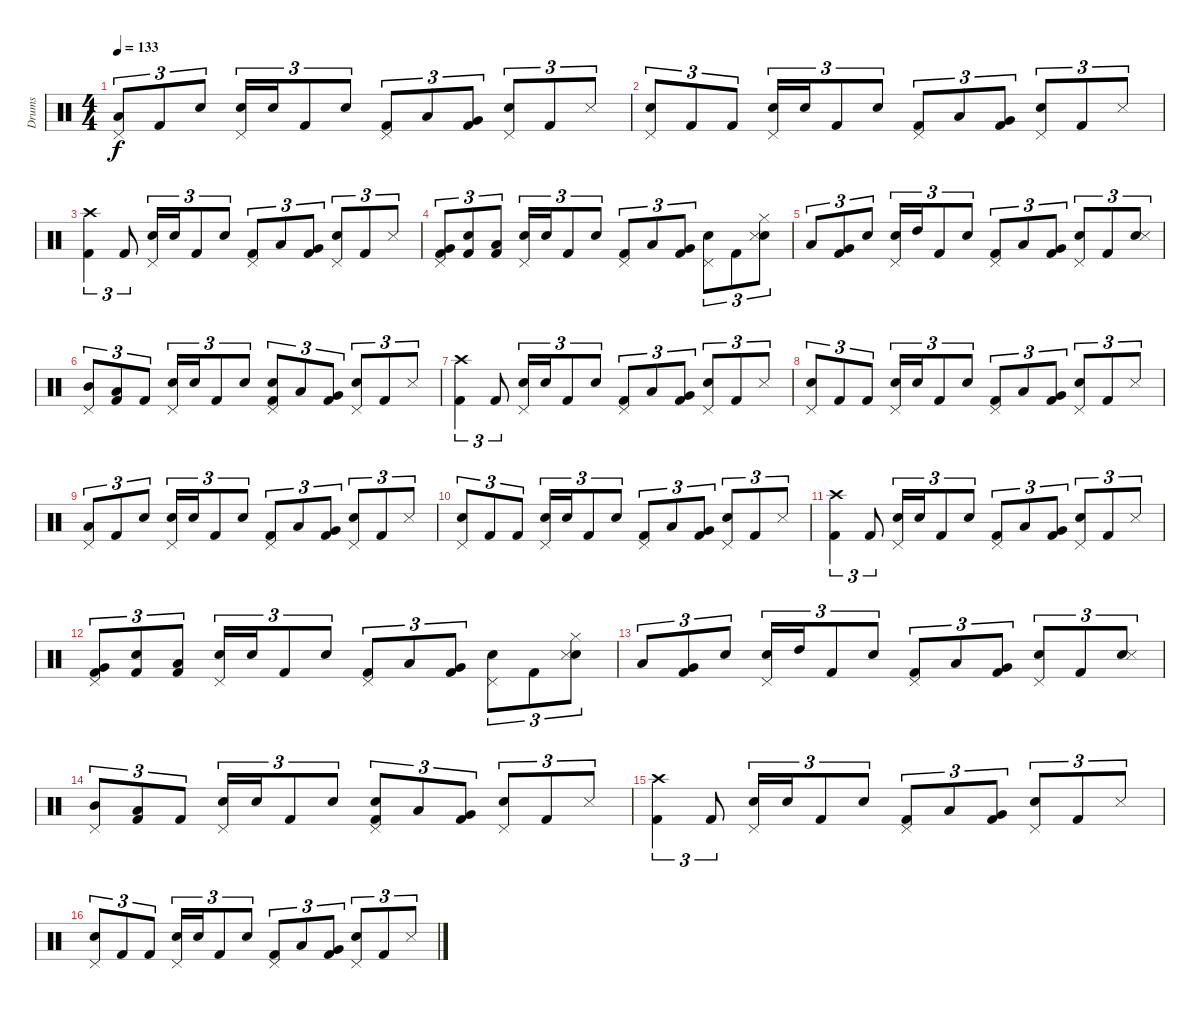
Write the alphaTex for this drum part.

\track ("Drums" "Drums") {instrument percussion}
\staff {score}
\articulation defaults
\ts (4 4)
\tempo 133
\clef neutral
\ks c
("Low Tom (hit)" "Pedal Hi-Hat (hit)").8{tu (3 2) dy f} "Kick (hit) 2".8{tu (3 2)} "Snare (hit) 2".8{tu (3 2)} ("Snare (hit) 2" "Pedal Hi-Hat (hit)").16{tu (3 2)} "Snare (hit) 2".16{tu (3 2)} "Kick (hit) 2".8{tu (3 2)} "Snare (hit) 2".8{tu (3 2)} ("Kick (hit) 2" "Pedal Hi-Hat (hit)").8{tu (3 2)} "Low Tom (hit)".8{tu (3 2)} ("Kick (hit) 2" "Very Low Tom (hit)").8{tu (3 2)} ("Snare (hit) 2" "Pedal Hi-Hat (hit)").8{tu (3 2)} "Kick (hit) 2".8{tu (3 2)} "Snare (side stick) 3".8{tu (3 2)} |
("Snare (hit) 2" "Pedal Hi-Hat (hit)").8{tu (3 2)} "Kick (hit) 2".8{tu (3 2)} "Kick (hit) 2".8{tu (3 2)} ("Snare (hit) 2" "Pedal Hi-Hat (hit)").16{tu (3 2)} "Snare (hit) 2".16{tu (3 2)} "Kick (hit) 2".8{tu (3 2)} "Snare (hit) 2".8{tu (3 2)} ("Kick (hit) 2" "Pedal Hi-Hat (hit)").8{tu (3 2)} "Low Tom (hit)".8{tu (3 2)} ("Kick (hit) 2" "Very Low Tom (hit)").8{tu (3 2)} ("Snare (hit) 2" "Pedal Hi-Hat (hit)").8{tu (3 2)} "Kick (hit) 2".8{tu (3 2)} "Snare (side stick) 3".8{tu (3 2)} |
("Kick (hit) 2" "Crash high (hit)").4{tu (3 2)} "Kick (hit) 2".8{tu (3 2)} ("Snare (hit) 2" "Pedal Hi-Hat (hit)").16{tu (3 2)} "Snare (hit) 2".16{tu (3 2)} "Kick (hit) 2".8{tu (3 2)} "Snare (hit) 2".8{tu (3 2)} ("Kick (hit) 2" "Pedal Hi-Hat (hit)").8{tu (3 2)} "Low Tom (hit)".8{tu (3 2)} ("Kick (hit) 2" "Very Low Tom (hit)").8{tu (3 2)} ("Snare (hit) 2" "Pedal Hi-Hat (hit)").8{tu (3 2)} "Kick (hit) 2".8{tu (3 2)} "Snare (side stick) 3".8{tu (3 2)} |
("Kick (hit) 2" "Very Low Tom (hit)" "Pedal Hi-Hat (hit)").8{tu (3 2)} ("Kick (hit) 2" "Snare (hit) 2").8{tu (3 2)} ("Kick (hit) 2" "Low Tom (hit)").8{tu (3 2)} ("Snare (hit) 2" "Pedal Hi-Hat (hit)").16{tu (3 2)} "Snare (hit) 2".16{tu (3 2)} "Kick (hit) 2".8{tu (3 2)} "Snare (hit) 2".8{tu (3 2)} ("Kick (hit) 2" "Pedal Hi-Hat (hit)").8{tu (3 2)} "Low Tom (hit)".8{tu (3 2)} ("Kick (hit) 2" "Very Low Tom (hit)").8{tu (3 2)} ("Snare (hit) 2" "Pedal Hi-Hat (hit)").8{tu (3 2)} "Kick (hit) 2".8{tu (3 2)} ("Snare (hit) 2" "Snare (side stick) 3" "Hi-Hat (closed)").8{tu (3 2)} |
"Low Tom (hit)".8{tu (3 2)} ("Kick (hit) 2" "Very Low Tom (hit)").8{tu (3 2)} "Snare (hit) 2".8{tu (3 2)} ("Snare (hit) 2" "Pedal Hi-Hat (hit)").16{tu (3 2)} "High Tom (hit)".16{tu (3 2)} "Kick (hit) 2".8{tu (3 2)} "Snare (hit) 2".8{tu (3 2)} ("Kick (hit) 2" "Pedal Hi-Hat (hit)").8{tu (3 2)} "Low Tom (hit)".8{tu (3 2)} ("Kick (hit) 2" "Very Low Tom (hit)").8{tu (3 2)} ("Snare (hit) 2" "Pedal Hi-Hat (hit)").8{tu (3 2)} "Kick (hit) 2".8{tu (3 2)} ("Snare (hit) 2" "Snare (side stick) 3").8{tu (3 2)} |
("Mid Tom (hit)" "Pedal Hi-Hat (hit)").8{tu (3 2)} ("Kick (hit) 2" "Low Tom (hit)").8{tu (3 2)} "Kick (hit) 2".8{tu (3 2)} ("Snare (hit) 2" "Pedal Hi-Hat (hit)").16{tu (3 2)} "Snare (hit) 2".16{tu (3 2)} "Kick (hit) 2".8{tu (3 2)} "Snare (hit) 2".8{tu (3 2)} ("Kick (hit) 2" "Snare (hit) 2" "Pedal Hi-Hat (hit)").8{tu (3 2)} "Low Tom (hit)".8{tu (3 2)} ("Kick (hit) 2" "Very Low Tom (hit)").8{tu (3 2)} ("Snare (hit) 2" "Pedal Hi-Hat (hit)").8{tu (3 2)} "Kick (hit) 2".8{tu (3 2)} "Snare (side stick) 3".8{tu (3 2)} |
("Kick (hit) 2" "Crash high (hit)").4{tu (3 2)} "Kick (hit) 2".8{tu (3 2)} ("Snare (hit) 2" "Pedal Hi-Hat (hit)").16{tu (3 2)} "Snare (hit) 2".16{tu (3 2)} "Kick (hit) 2".8{tu (3 2)} "Snare (hit) 2".8{tu (3 2)} ("Kick (hit) 2" "Pedal Hi-Hat (hit)").8{tu (3 2)} "Low Tom (hit)".8{tu (3 2)} ("Kick (hit) 2" "Very Low Tom (hit)").8{tu (3 2)} ("Snare (hit) 2" "Pedal Hi-Hat (hit)").8{tu (3 2)} "Kick (hit) 2".8{tu (3 2)} "Snare (side stick) 3".8{tu (3 2)} |
("Snare (hit) 2" "Pedal Hi-Hat (hit)").8{tu (3 2)} "Kick (hit) 2".8{tu (3 2)} "Kick (hit) 2".8{tu (3 2)} ("Snare (hit) 2" "Pedal Hi-Hat (hit)").16{tu (3 2)} "Snare (hit) 2".16{tu (3 2)} "Kick (hit) 2".8{tu (3 2)} "Snare (hit) 2".8{tu (3 2)} ("Kick (hit) 2" "Pedal Hi-Hat (hit)").8{tu (3 2)} "Low Tom (hit)".8{tu (3 2)} ("Kick (hit) 2" "Very Low Tom (hit)").8{tu (3 2)} ("Snare (hit) 2" "Pedal Hi-Hat (hit)").8{tu (3 2)} "Kick (hit) 2".8{tu (3 2)} "Snare (side stick) 3".8{tu (3 2)} |
("Low Tom (hit)" "Pedal Hi-Hat (hit)").8{tu (3 2)} "Kick (hit) 2".8{tu (3 2)} "Snare (hit) 2".8{tu (3 2)} ("Snare (hit) 2" "Pedal Hi-Hat (hit)").16{tu (3 2)} "Snare (hit) 2".16{tu (3 2)} "Kick (hit) 2".8{tu (3 2)} "Snare (hit) 2".8{tu (3 2)} ("Kick (hit) 2" "Pedal Hi-Hat (hit)").8{tu (3 2)} "Low Tom (hit)".8{tu (3 2)} ("Kick (hit) 2" "Very Low Tom (hit)").8{tu (3 2)} ("Snare (hit) 2" "Pedal Hi-Hat (hit)").8{tu (3 2)} "Kick (hit) 2".8{tu (3 2)} "Snare (side stick) 3".8{tu (3 2)} |
("Snare (hit) 2" "Pedal Hi-Hat (hit)").8{tu (3 2)} "Kick (hit) 2".8{tu (3 2)} "Kick (hit) 2".8{tu (3 2)} ("Snare (hit) 2" "Pedal Hi-Hat (hit)").16{tu (3 2)} "Snare (hit) 2".16{tu (3 2)} "Kick (hit) 2".8{tu (3 2)} "Snare (hit) 2".8{tu (3 2)} ("Kick (hit) 2" "Pedal Hi-Hat (hit)").8{tu (3 2)} "Low Tom (hit)".8{tu (3 2)} ("Kick (hit) 2" "Very Low Tom (hit)").8{tu (3 2)} ("Snare (hit) 2" "Pedal Hi-Hat (hit)").8{tu (3 2)} "Kick (hit) 2".8{tu (3 2)} "Snare (side stick) 3".8{tu (3 2)} |
("Kick (hit) 2" "Crash high (hit)").4{tu (3 2)} "Kick (hit) 2".8{tu (3 2)} ("Snare (hit) 2" "Pedal Hi-Hat (hit)").16{tu (3 2)} "Snare (hit) 2".16{tu (3 2)} "Kick (hit) 2".8{tu (3 2)} "Snare (hit) 2".8{tu (3 2)} ("Kick (hit) 2" "Pedal Hi-Hat (hit)").8{tu (3 2)} "Low Tom (hit)".8{tu (3 2)} ("Kick (hit) 2" "Very Low Tom (hit)").8{tu (3 2)} ("Snare (hit) 2" "Pedal Hi-Hat (hit)").8{tu (3 2)} "Kick (hit) 2".8{tu (3 2)} "Snare (side stick) 3".8{tu (3 2)} |
("Kick (hit) 2" "Very Low Tom (hit)" "Pedal Hi-Hat (hit)").8{tu (3 2)} ("Kick (hit) 2" "Snare (hit) 2").8{tu (3 2)} ("Kick (hit) 2" "Low Tom (hit)").8{tu (3 2)} ("Snare (hit) 2" "Pedal Hi-Hat (hit)").16{tu (3 2)} "Snare (hit) 2".16{tu (3 2)} "Kick (hit) 2".8{tu (3 2)} "Snare (hit) 2".8{tu (3 2)} ("Kick (hit) 2" "Pedal Hi-Hat (hit)").8{tu (3 2)} "Low Tom (hit)".8{tu (3 2)} ("Kick (hit) 2" "Very Low Tom (hit)").8{tu (3 2)} ("Snare (hit) 2" "Pedal Hi-Hat (hit)").8{tu (3 2)} "Kick (hit) 2".8{tu (3 2)} ("Snare (hit) 2" "Snare (side stick) 3" "Hi-Hat (closed)").8{tu (3 2)} |
"Low Tom (hit)".8{tu (3 2)} ("Kick (hit) 2" "Very Low Tom (hit)").8{tu (3 2)} "Snare (hit) 2".8{tu (3 2)} ("Snare (hit) 2" "Pedal Hi-Hat (hit)").16{tu (3 2)} "High Tom (hit)".16{tu (3 2)} "Kick (hit) 2".8{tu (3 2)} "Snare (hit) 2".8{tu (3 2)} ("Kick (hit) 2" "Pedal Hi-Hat (hit)").8{tu (3 2)} "Low Tom (hit)".8{tu (3 2)} ("Kick (hit) 2" "Very Low Tom (hit)").8{tu (3 2)} ("Snare (hit) 2" "Pedal Hi-Hat (hit)").8{tu (3 2)} "Kick (hit) 2".8{tu (3 2)} ("Snare (hit) 2" "Snare (side stick) 3").8{tu (3 2)} |
("Mid Tom (hit)" "Pedal Hi-Hat (hit)").8{tu (3 2)} ("Kick (hit) 2" "Low Tom (hit)").8{tu (3 2)} "Kick (hit) 2".8{tu (3 2)} ("Snare (hit) 2" "Pedal Hi-Hat (hit)").16{tu (3 2)} "Snare (hit) 2".16{tu (3 2)} "Kick (hit) 2".8{tu (3 2)} "Snare (hit) 2".8{tu (3 2)} ("Kick (hit) 2" "Snare (hit) 2" "Pedal Hi-Hat (hit)").8{tu (3 2)} "Low Tom (hit)".8{tu (3 2)} ("Kick (hit) 2" "Very Low Tom (hit)").8{tu (3 2)} ("Snare (hit) 2" "Pedal Hi-Hat (hit)").8{tu (3 2)} "Kick (hit) 2".8{tu (3 2)} "Snare (side stick) 3".8{tu (3 2)} |
("Kick (hit) 2" "Crash high (hit)").4{tu (3 2)} "Kick (hit) 2".8{tu (3 2)} ("Snare (hit) 2" "Pedal Hi-Hat (hit)").16{tu (3 2)} "Snare (hit) 2".16{tu (3 2)} "Kick (hit) 2".8{tu (3 2)} "Snare (hit) 2".8{tu (3 2)} ("Kick (hit) 2" "Pedal Hi-Hat (hit)").8{tu (3 2)} "Low Tom (hit)".8{tu (3 2)} ("Kick (hit) 2" "Very Low Tom (hit)").8{tu (3 2)} ("Snare (hit) 2" "Pedal Hi-Hat (hit)").8{tu (3 2)} "Kick (hit) 2".8{tu (3 2)} "Snare (side stick) 3".8{tu (3 2)} |
("Snare (hit) 2" "Pedal Hi-Hat (hit)").8{tu (3 2)} "Kick (hit) 2".8{tu (3 2)} "Kick (hit) 2".8{tu (3 2)} ("Snare (hit) 2" "Pedal Hi-Hat (hit)").16{tu (3 2)} "Snare (hit) 2".16{tu (3 2)} "Kick (hit) 2".8{tu (3 2)} "Snare (hit) 2".8{tu (3 2)} ("Kick (hit) 2" "Pedal Hi-Hat (hit)").8{tu (3 2)} "Low Tom (hit)".8{tu (3 2)} ("Kick (hit) 2" "Very Low Tom (hit)").8{tu (3 2)} ("Snare (hit) 2" "Pedal Hi-Hat (hit)").8{tu (3 2)} "Kick (hit) 2".8{tu (3 2)} "Snare (side stick) 3".8{tu (3 2)}
